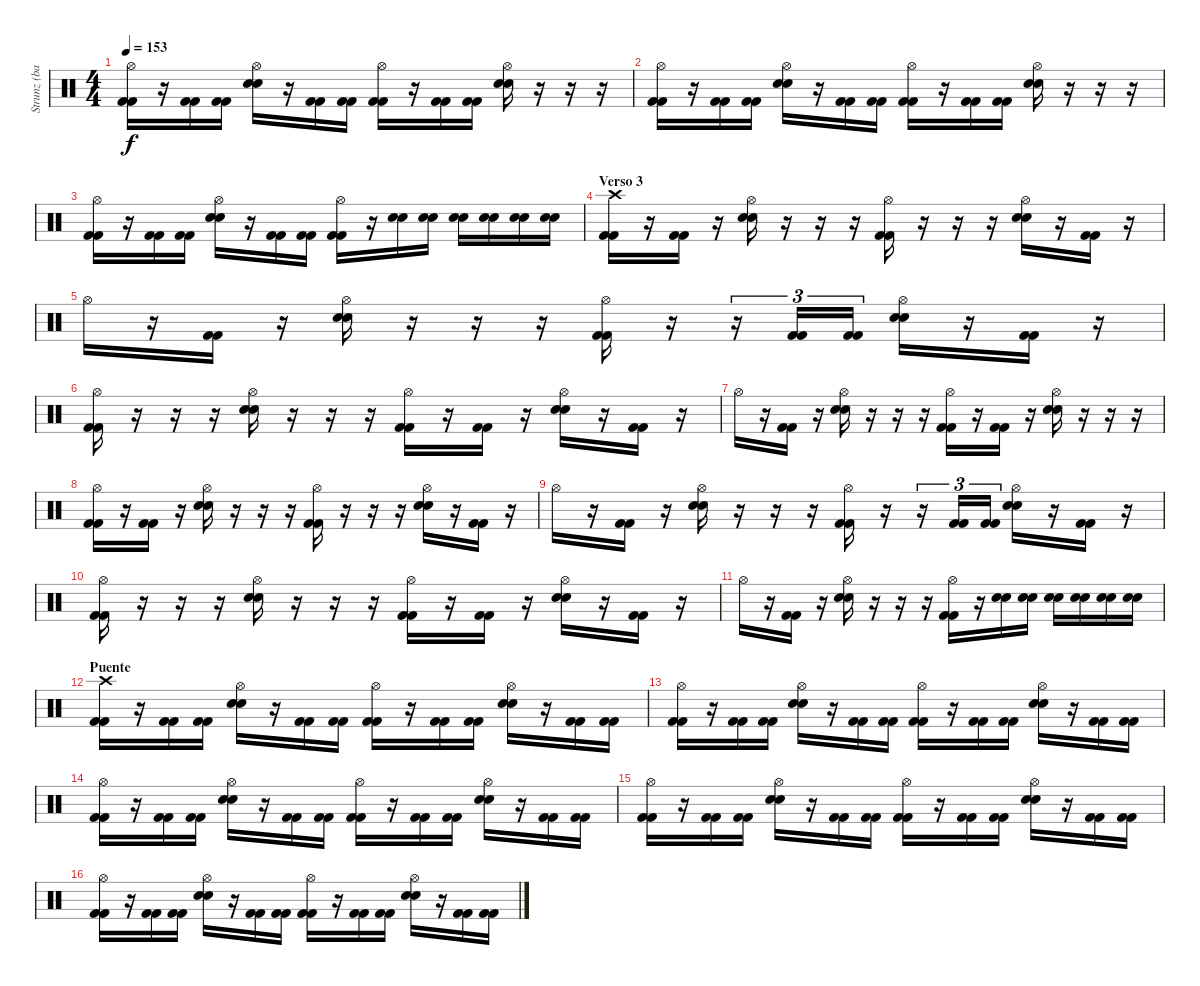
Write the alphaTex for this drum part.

\track ("Strunz (bateria)" "Strunz (ba") {instrument percussion}
\staff {score}
\articulation defaults
\ts (4 4)
\tempo 153
\clef neutral
\ks c
("Hi-Hat (open)" "Kick (hit) 2" "Kick (hit) 2").16{dy f} r.16 ("Kick (hit) 2" "Kick (hit) 2").16 ("Kick (hit) 2" "Kick (hit) 2").16 ("Hi-Hat (open)" "Snare (hit) 2" "Snare (hit) 2").16 r.16 ("Kick (hit) 2" "Kick (hit) 2").16 ("Kick (hit) 2" "Kick (hit) 2").16 ("Hi-Hat (open)" "Kick (hit) 2" "Kick (hit) 2").16 r.16 ("Kick (hit) 2" "Kick (hit) 2").16 ("Kick (hit) 2" "Kick (hit) 2").16 ("Hi-Hat (open)" "Snare (hit) 2" "Snare (hit) 2").16 r.16 r.16 r.16 |
("Hi-Hat (open)" "Kick (hit) 2" "Kick (hit) 2").16 r.16 ("Kick (hit) 2" "Kick (hit) 2").16 ("Kick (hit) 2" "Kick (hit) 2").16 ("Hi-Hat (open)" "Snare (hit) 2" "Snare (hit) 2").16 r.16 ("Kick (hit) 2" "Kick (hit) 2").16 ("Kick (hit) 2" "Kick (hit) 2").16 ("Hi-Hat (open)" "Kick (hit) 2" "Kick (hit) 2").16 r.16 ("Kick (hit) 2" "Kick (hit) 2").16 ("Kick (hit) 2" "Kick (hit) 2").16 ("Hi-Hat (open)" "Snare (hit) 2" "Snare (hit) 2").16 r.16 r.16 r.16 |
("Hi-Hat (open)" "Kick (hit) 2" "Kick (hit) 2").16 r.16 ("Kick (hit) 2" "Kick (hit) 2").16 ("Kick (hit) 2" "Kick (hit) 2").16 ("Hi-Hat (open)" "Snare (hit) 2" "Snare (hit) 2").16 r.16 ("Kick (hit) 2" "Kick (hit) 2").16 ("Kick (hit) 2" "Kick (hit) 2").16 ("Hi-Hat (open)" "Kick (hit) 2" "Kick (hit) 2").16 r.16 ("Snare (hit) 2" "Snare (hit) 2").16 ("Snare (hit) 2" "Snare (hit) 2").16 ("Snare (hit) 2" "Snare (hit) 2").16 ("Snare (hit) 2" "Snare (hit) 2").16 ("Snare (hit) 2" "Snare (hit) 2").16 ("Snare (hit) 2" "Snare (hit) 2").16 |
\section ("" "Verso 3")
("Crash high (hit)" "Kick (hit) 2" "Kick (hit) 2").16 r.16 ("Kick (hit) 2" "Kick (hit) 2").16 r.16 ("Hi-Hat (open)" "Snare (hit) 2" "Snare (hit) 2").16 r.16 r.16 r.16 ("Hi-Hat (open)" "Kick (hit) 2" "Kick (hit) 2").16 r.16 r.16 r.16 ("Hi-Hat (open)" "Snare (hit) 2" "Snare (hit) 2").16 r.16 ("Kick (hit) 2" "Kick (hit) 2").16 r.16 |
"Hi-Hat (open)".16 r.16 ("Kick (hit) 2" "Kick (hit) 2").16 r.16 ("Hi-Hat (open)" "Snare (hit) 2" "Snare (hit) 2").16 r.16 r.16 r.16 ("Hi-Hat (open)" "Kick (hit) 2" "Kick (hit) 2").16 r.16 r.16{tu (3 2)} ("Kick (hit) 2" "Kick (hit) 2").16{tu (3 2)} ("Kick (hit) 2" "Kick (hit) 2").16{tu (3 2)} ("Hi-Hat (open)" "Snare (hit) 2" "Snare (hit) 2").16 r.16 ("Kick (hit) 2" "Kick (hit) 2").16 r.16 |
("Hi-Hat (open)" "Kick (hit) 2" "Kick (hit) 2").16 r.16 r.16 r.16 ("Hi-Hat (open)" "Snare (hit) 2" "Snare (hit) 2").16 r.16 r.16 r.16 ("Hi-Hat (open)" "Kick (hit) 2" "Kick (hit) 2").16 r.16 ("Kick (hit) 2" "Kick (hit) 2").16 r.16 ("Hi-Hat (open)" "Snare (hit) 2" "Snare (hit) 2").16 r.16 ("Kick (hit) 2" "Kick (hit) 2").16 r.16 |
"Hi-Hat (open)".16 r.16 ("Kick (hit) 2" "Kick (hit) 2").16 r.16 ("Hi-Hat (open)" "Snare (hit) 2" "Snare (hit) 2").16 r.16 r.16 r.16 ("Hi-Hat (open)" "Kick (hit) 2" "Kick (hit) 2").16 r.16 ("Kick (hit) 2" "Kick (hit) 2").16 r.16 ("Hi-Hat (open)" "Snare (hit) 2" "Snare (hit) 2").16 r.16 r.16 r.16 |
("Hi-Hat (open)" "Kick (hit) 2" "Kick (hit) 2").16 r.16 ("Kick (hit) 2" "Kick (hit) 2").16 r.16 ("Hi-Hat (open)" "Snare (hit) 2" "Snare (hit) 2").16 r.16 r.16 r.16 ("Hi-Hat (open)" "Kick (hit) 2" "Kick (hit) 2").16 r.16 r.16 r.16 ("Hi-Hat (open)" "Snare (hit) 2" "Snare (hit) 2").16 r.16 ("Kick (hit) 2" "Kick (hit) 2").16 r.16 |
"Hi-Hat (open)".16 r.16 ("Kick (hit) 2" "Kick (hit) 2").16 r.16 ("Hi-Hat (open)" "Snare (hit) 2" "Snare (hit) 2").16 r.16 r.16 r.16 ("Hi-Hat (open)" "Kick (hit) 2" "Kick (hit) 2").16 r.16 r.16{tu (3 2)} ("Kick (hit) 2" "Kick (hit) 2").16{tu (3 2)} ("Kick (hit) 2" "Kick (hit) 2").16{tu (3 2)} ("Hi-Hat (open)" "Snare (hit) 2" "Snare (hit) 2").16 r.16 ("Kick (hit) 2" "Kick (hit) 2").16 r.16 |
("Hi-Hat (open)" "Kick (hit) 2" "Kick (hit) 2").16 r.16 r.16 r.16 ("Hi-Hat (open)" "Snare (hit) 2" "Snare (hit) 2").16 r.16 r.16 r.16 ("Hi-Hat (open)" "Kick (hit) 2" "Kick (hit) 2").16 r.16 ("Kick (hit) 2" "Kick (hit) 2").16 r.16 ("Hi-Hat (open)" "Snare (hit) 2" "Snare (hit) 2").16 r.16 ("Kick (hit) 2" "Kick (hit) 2").16 r.16 |
"Hi-Hat (open)".16 r.16 ("Kick (hit) 2" "Kick (hit) 2").16 r.16 ("Hi-Hat (open)" "Snare (hit) 2" "Snare (hit) 2").16 r.16 r.16 r.16 ("Hi-Hat (open)" "Kick (hit) 2" "Kick (hit) 2").16 r.16 ("Snare (hit) 2" "Snare (hit) 2").16 ("Snare (hit) 2" "Snare (hit) 2").16 ("Snare (hit) 2" "Snare (hit) 2").16 ("Snare (hit) 2" "Snare (hit) 2").16 ("Snare (hit) 2" "Snare (hit) 2").16 ("Snare (hit) 2" "Snare (hit) 2").16 |
\section ("" "Puente")
("Crash high (hit)" "Kick (hit) 2" "Kick (hit) 2").16 r.16 ("Kick (hit) 2" "Kick (hit) 2").16 ("Kick (hit) 2" "Kick (hit) 2").16 ("Hi-Hat (open)" "Snare (hit) 2" "Snare (hit) 2").16 r.16 ("Kick (hit) 2" "Kick (hit) 2").16 ("Kick (hit) 2" "Kick (hit) 2").16 ("Hi-Hat (open)" "Kick (hit) 2" "Kick (hit) 2").16 r.16 ("Kick (hit) 2" "Kick (hit) 2").16 ("Kick (hit) 2" "Kick (hit) 2").16 ("Hi-Hat (open)" "Snare (hit) 2" "Snare (hit) 2").16 r.16 ("Kick (hit) 2" "Kick (hit) 2").16 ("Kick (hit) 2" "Kick (hit) 2").16 |
("Hi-Hat (open)" "Kick (hit) 2" "Kick (hit) 2").16 r.16 ("Kick (hit) 2" "Kick (hit) 2").16 ("Kick (hit) 2" "Kick (hit) 2").16 ("Hi-Hat (open)" "Snare (hit) 2" "Snare (hit) 2").16 r.16 ("Kick (hit) 2" "Kick (hit) 2").16 ("Kick (hit) 2" "Kick (hit) 2").16 ("Hi-Hat (open)" "Kick (hit) 2" "Kick (hit) 2").16 r.16 ("Kick (hit) 2" "Kick (hit) 2").16 ("Kick (hit) 2" "Kick (hit) 2").16 ("Hi-Hat (open)" "Snare (hit) 2" "Snare (hit) 2").16 r.16 ("Kick (hit) 2" "Kick (hit) 2").16 ("Kick (hit) 2" "Kick (hit) 2").16 |
("Hi-Hat (open)" "Kick (hit) 2" "Kick (hit) 2").16 r.16 ("Kick (hit) 2" "Kick (hit) 2").16 ("Kick (hit) 2" "Kick (hit) 2").16 ("Hi-Hat (open)" "Snare (hit) 2" "Snare (hit) 2").16 r.16 ("Kick (hit) 2" "Kick (hit) 2").16 ("Kick (hit) 2" "Kick (hit) 2").16 ("Hi-Hat (open)" "Kick (hit) 2" "Kick (hit) 2").16 r.16 ("Kick (hit) 2" "Kick (hit) 2").16 ("Kick (hit) 2" "Kick (hit) 2").16 ("Hi-Hat (open)" "Snare (hit) 2" "Snare (hit) 2").16 r.16 ("Kick (hit) 2" "Kick (hit) 2").16 ("Kick (hit) 2" "Kick (hit) 2").16 |
("Hi-Hat (open)" "Kick (hit) 2" "Kick (hit) 2").16 r.16 ("Kick (hit) 2" "Kick (hit) 2").16 ("Kick (hit) 2" "Kick (hit) 2").16 ("Hi-Hat (open)" "Snare (hit) 2" "Snare (hit) 2").16 r.16 ("Kick (hit) 2" "Kick (hit) 2").16 ("Kick (hit) 2" "Kick (hit) 2").16 ("Hi-Hat (open)" "Kick (hit) 2" "Kick (hit) 2").16 r.16 ("Kick (hit) 2" "Kick (hit) 2").16 ("Kick (hit) 2" "Kick (hit) 2").16 ("Hi-Hat (open)" "Snare (hit) 2" "Snare (hit) 2").16 r.16 ("Kick (hit) 2" "Kick (hit) 2").16 ("Kick (hit) 2" "Kick (hit) 2").16 |
("Hi-Hat (open)" "Kick (hit) 2" "Kick (hit) 2").16 r.16 ("Kick (hit) 2" "Kick (hit) 2").16 ("Kick (hit) 2" "Kick (hit) 2").16 ("Hi-Hat (open)" "Snare (hit) 2" "Snare (hit) 2").16 r.16 ("Kick (hit) 2" "Kick (hit) 2").16 ("Kick (hit) 2" "Kick (hit) 2").16 ("Hi-Hat (open)" "Kick (hit) 2" "Kick (hit) 2").16 r.16 ("Kick (hit) 2" "Kick (hit) 2").16 ("Kick (hit) 2" "Kick (hit) 2").16 ("Hi-Hat (open)" "Snare (hit) 2" "Snare (hit) 2").16 r.16 ("Kick (hit) 2" "Kick (hit) 2").16 ("Kick (hit) 2" "Kick (hit) 2").16
